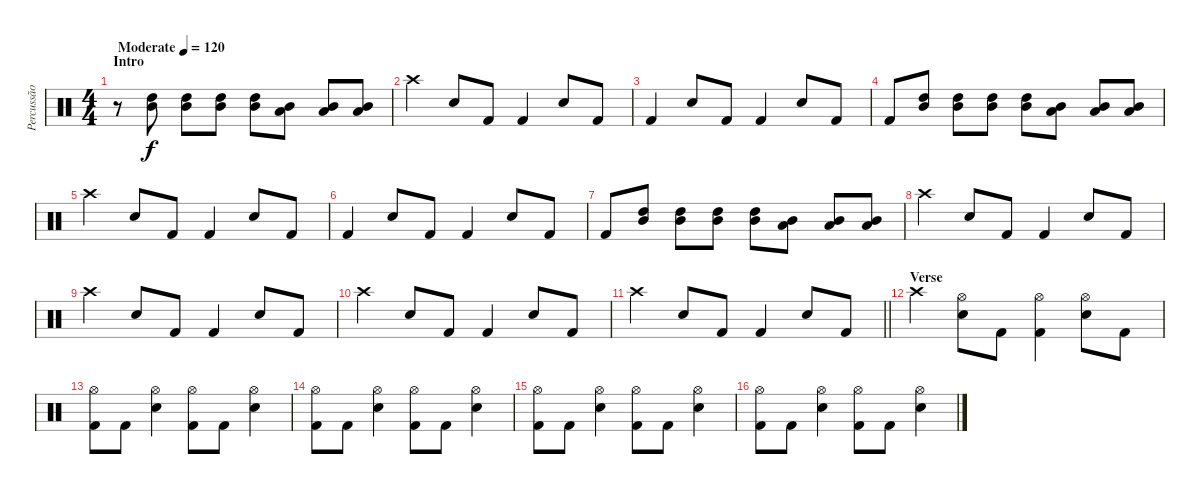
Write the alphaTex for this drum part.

\track ("Percussão" "Percussão") {instrument percussion}
\staff {score}
\articulation defaults
\ts (4 4)
\section ("" "Intro")
\tempo (120 "Moderate")
\clef neutral
\ks c
r.8{dy f} ("High Tom (hit)" "Mid Tom (hit)").8 ("High Tom (hit)" "Mid Tom (hit)").8 ("High Tom (hit)" "Mid Tom (hit)").8 ("High Tom (hit)" "Mid Tom (hit)").8 ("Mid Tom (hit)" "Low Tom (hit)").8 ("Mid Tom (hit)" "Low Tom (hit)").8 ("Mid Tom (hit)" "Low Tom (hit)").8 |
"Crash high (hit)".4 "Snare (hit) 2".8 "Kick (hit) 2".8 "Kick (hit) 2".4 "Snare (hit) 2".8 "Kick (hit) 2".8 |
"Kick (hit) 2".4 "Snare (hit) 2".8 "Kick (hit) 2".8 "Kick (hit) 2".4 "Snare (hit) 2".8 "Kick (hit) 2".8 |
"Kick (hit) 2".8 ("High Tom (hit)" "Mid Tom (hit)").8 ("High Tom (hit)" "Mid Tom (hit)").8 ("High Tom (hit)" "Mid Tom (hit)").8 ("High Tom (hit)" "Mid Tom (hit)").8 ("Mid Tom (hit)" "Low Tom (hit)").8 ("Mid Tom (hit)" "Low Tom (hit)").8 ("Mid Tom (hit)" "Low Tom (hit)").8 |
"Crash high (hit)".4 "Snare (hit) 2".8 "Kick (hit) 2".8 "Kick (hit) 2".4 "Snare (hit) 2".8 "Kick (hit) 2".8 |
"Kick (hit) 2".4 "Snare (hit) 2".8 "Kick (hit) 2".8 "Kick (hit) 2".4 "Snare (hit) 2".8 "Kick (hit) 2".8 |
"Kick (hit) 2".8 ("High Tom (hit)" "Mid Tom (hit)").8 ("High Tom (hit)" "Mid Tom (hit)").8 ("High Tom (hit)" "Mid Tom (hit)").8 ("High Tom (hit)" "Mid Tom (hit)").8 ("Mid Tom (hit)" "Low Tom (hit)").8 ("Mid Tom (hit)" "Low Tom (hit)").8 ("Mid Tom (hit)" "Low Tom (hit)").8 |
"Crash high (hit)".4 "Snare (hit) 2".8 "Kick (hit) 2".8 "Kick (hit) 2".4 "Snare (hit) 2".8 "Kick (hit) 2".8 |
"Crash high (hit)".4 "Snare (hit) 2".8 "Kick (hit) 2".8 "Kick (hit) 2".4 "Snare (hit) 2".8 "Kick (hit) 2".8 |
"Crash high (hit)".4 "Snare (hit) 2".8 "Kick (hit) 2".8 "Kick (hit) 2".4 "Snare (hit) 2".8 "Kick (hit) 2".8 |
\barLineRight lightlight "Crash high (hit)".4 "Snare (hit) 2".8 "Kick (hit) 2".8 "Kick (hit) 2".4 "Snare (hit) 2".8 "Kick (hit) 2".8
|
\section ("" "Verse")
"Crash high (hit)".4 ("Hi-Hat (open)" "Snare (hit) 2").8 "Kick (hit) 2".8 ("Hi-Hat (open)" "Kick (hit) 2").4 ("Hi-Hat (open)" "Snare (hit) 2").8 "Kick (hit) 2".8 |
("Hi-Hat (open)" "Kick (hit) 2").8 "Kick (hit) 2".8 ("Hi-Hat (open)" "Snare (hit) 2").4 ("Hi-Hat (open)" "Kick (hit) 2").8 "Kick (hit) 2".8 ("Hi-Hat (open)" "Snare (hit) 2").4 |
("Hi-Hat (open)" "Kick (hit) 2").8 "Kick (hit) 2".8 ("Hi-Hat (open)" "Snare (hit) 2").4 ("Hi-Hat (open)" "Kick (hit) 2").8 "Kick (hit) 2".8 ("Hi-Hat (open)" "Snare (hit) 2").4 |
("Hi-Hat (open)" "Kick (hit) 2").8 "Kick (hit) 2".8 ("Hi-Hat (open)" "Snare (hit) 2").4 ("Hi-Hat (open)" "Kick (hit) 2").8 "Kick (hit) 2".8 ("Hi-Hat (open)" "Snare (hit) 2").4 |
("Hi-Hat (open)" "Kick (hit) 2").8 "Kick (hit) 2".8 ("Hi-Hat (open)" "Snare (hit) 2").4 ("Hi-Hat (open)" "Kick (hit) 2").8 "Kick (hit) 2".8 ("Hi-Hat (open)" "Snare (hit) 2").4
